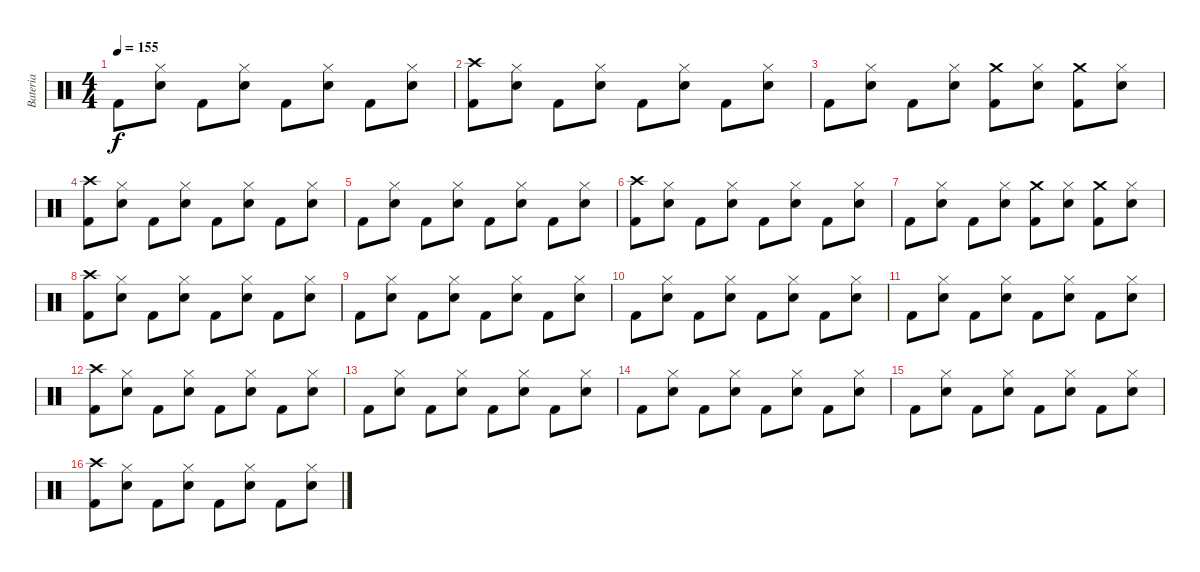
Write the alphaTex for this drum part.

\track ("Bateria" "Bateria") {instrument percussion}
\staff {score}
\articulation defaults
\ts (4 4)
\tempo 155
\clef neutral
\ks c "Kick (hit) 2".8{dy f}
("Electric Snare (hit)" "Hi-Hat (closed)").8 "Kick (hit) 2".8 ("Electric Snare (hit)" "Hi-Hat (closed)").8 "Kick (hit) 2".8 ("Electric Snare (hit)" "Hi-Hat (closed)").8 "Kick (hit) 2".8 ("Electric Snare (hit)" "Hi-Hat (closed)").8 |
("Kick (hit) 2" "Crash high (hit)").8 ("Electric Snare (hit)" "Hi-Hat (closed)").8 "Kick (hit) 2".8 ("Electric Snare (hit)" "Hi-Hat (closed)").8 "Kick (hit) 2".8 ("Electric Snare (hit)" "Hi-Hat (closed)").8 "Kick (hit) 2".8 ("Electric Snare (hit)" "Hi-Hat (closed)").8 |
"Kick (hit) 2".8 ("Electric Snare (hit)" "Hi-Hat (closed)").8 "Kick (hit) 2".8 ("Electric Snare (hit)" "Hi-Hat (closed)").8 ("Kick (hit) 2" "Crash medium (hit)").8 ("Electric Snare (hit)" "Hi-Hat (closed)").8 ("Kick (hit) 2" "Crash medium (hit)").8 ("Electric Snare (hit)" "Hi-Hat (closed)").8 |
("Kick (hit) 2" "Crash high (hit)").8 ("Electric Snare (hit)" "Hi-Hat (closed)").8 "Kick (hit) 2".8 ("Electric Snare (hit)" "Hi-Hat (closed)").8 "Kick (hit) 2".8 ("Electric Snare (hit)" "Hi-Hat (closed)").8 "Kick (hit) 2".8 ("Electric Snare (hit)" "Hi-Hat (closed)").8 |
"Kick (hit) 2".8 ("Electric Snare (hit)" "Hi-Hat (closed)").8 "Kick (hit) 2".8 ("Electric Snare (hit)" "Hi-Hat (closed)").8 "Kick (hit) 2".8 ("Electric Snare (hit)" "Hi-Hat (closed)").8 "Kick (hit) 2".8 ("Electric Snare (hit)" "Hi-Hat (closed)").8 |
("Kick (hit) 2" "Crash high (hit)").8 ("Electric Snare (hit)" "Hi-Hat (closed)").8 "Kick (hit) 2".8 ("Electric Snare (hit)" "Hi-Hat (closed)").8 "Kick (hit) 2".8 ("Electric Snare (hit)" "Hi-Hat (closed)").8 "Kick (hit) 2".8 ("Electric Snare (hit)" "Hi-Hat (closed)").8 |
"Kick (hit) 2".8 ("Electric Snare (hit)" "Hi-Hat (closed)").8 "Kick (hit) 2".8 ("Electric Snare (hit)" "Hi-Hat (closed)").8 ("Kick (hit) 2" "Crash medium (hit)").8 ("Electric Snare (hit)" "Hi-Hat (closed)").8 ("Kick (hit) 2" "Crash medium (hit)").8 ("Electric Snare (hit)" "Hi-Hat (closed)").8 |
("Kick (hit) 2" "Crash high (hit)").8 ("Electric Snare (hit)" "Hi-Hat (closed)").8 "Kick (hit) 2".8 ("Electric Snare (hit)" "Hi-Hat (closed)").8 "Kick (hit) 2".8 ("Electric Snare (hit)" "Hi-Hat (closed)").8 "Kick (hit) 2".8 ("Electric Snare (hit)" "Hi-Hat (closed)").8 |
"Kick (hit) 2".8 ("Electric Snare (hit)" "Hi-Hat (closed)").8 "Kick (hit) 2".8 ("Electric Snare (hit)" "Hi-Hat (closed)").8 "Kick (hit) 2".8 ("Electric Snare (hit)" "Hi-Hat (closed)").8 "Kick (hit) 2".8 ("Electric Snare (hit)" "Hi-Hat (closed)").8 |
"Kick (hit) 2".8 ("Electric Snare (hit)" "Hi-Hat (closed)").8 "Kick (hit) 2".8 ("Electric Snare (hit)" "Hi-Hat (closed)").8 "Kick (hit) 2".8 ("Electric Snare (hit)" "Hi-Hat (closed)").8 "Kick (hit) 2".8 ("Electric Snare (hit)" "Hi-Hat (closed)").8 |
"Kick (hit) 2".8 ("Electric Snare (hit)" "Hi-Hat (closed)").8 "Kick (hit) 2".8 ("Electric Snare (hit)" "Hi-Hat (closed)").8 "Kick (hit) 2".8 ("Electric Snare (hit)" "Hi-Hat (closed)").8 "Kick (hit) 2".8 ("Electric Snare (hit)" "Hi-Hat (closed)").8 |
("Kick (hit) 2" "Crash high (hit)").8 ("Electric Snare (hit)" "Hi-Hat (closed)").8 "Kick (hit) 2".8 ("Electric Snare (hit)" "Hi-Hat (closed)").8 "Kick (hit) 2".8 ("Electric Snare (hit)" "Hi-Hat (closed)").8 "Kick (hit) 2".8 ("Electric Snare (hit)" "Hi-Hat (closed)").8 |
"Kick (hit) 2".8 ("Electric Snare (hit)" "Hi-Hat (closed)").8 "Kick (hit) 2".8 ("Electric Snare (hit)" "Hi-Hat (closed)").8 "Kick (hit) 2".8 ("Electric Snare (hit)" "Hi-Hat (closed)").8 "Kick (hit) 2".8 ("Electric Snare (hit)" "Hi-Hat (closed)").8 |
"Kick (hit) 2".8 ("Electric Snare (hit)" "Hi-Hat (closed)").8 "Kick (hit) 2".8 ("Electric Snare (hit)" "Hi-Hat (closed)").8 "Kick (hit) 2".8 ("Electric Snare (hit)" "Hi-Hat (closed)").8 "Kick (hit) 2".8 ("Electric Snare (hit)" "Hi-Hat (closed)").8 |
"Kick (hit) 2".8 ("Electric Snare (hit)" "Hi-Hat (closed)").8 "Kick (hit) 2".8 ("Electric Snare (hit)" "Hi-Hat (closed)").8 "Kick (hit) 2".8 ("Electric Snare (hit)" "Hi-Hat (closed)").8 "Kick (hit) 2".8 ("Electric Snare (hit)" "Hi-Hat (closed)").8 |
("Kick (hit) 2" "Crash high (hit)").8 ("Electric Snare (hit)" "Hi-Hat (closed)").8 "Kick (hit) 2".8 ("Electric Snare (hit)" "Hi-Hat (closed)").8 "Kick (hit) 2".8 ("Electric Snare (hit)" "Hi-Hat (closed)").8 "Kick (hit) 2".8 ("Electric Snare (hit)" "Hi-Hat (closed)").8
